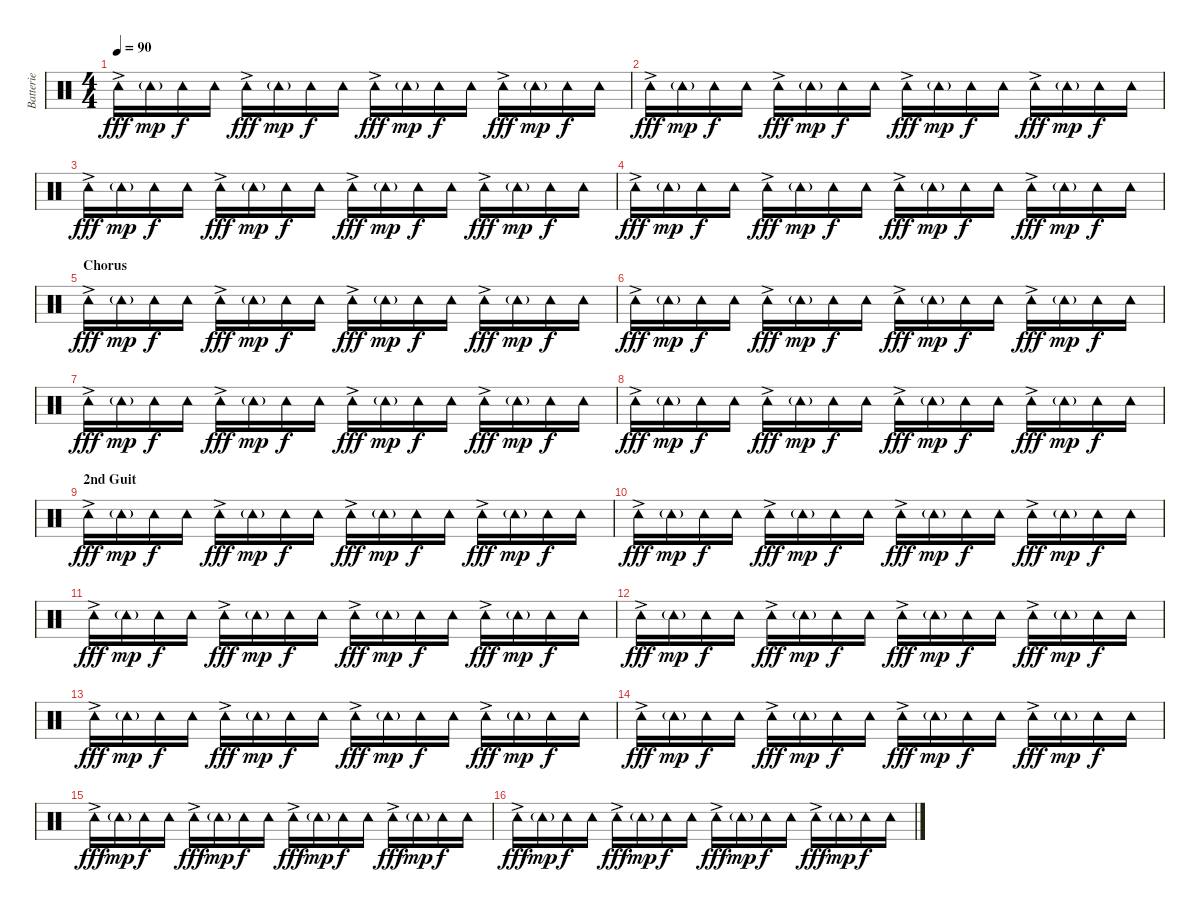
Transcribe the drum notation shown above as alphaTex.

\track ("Batterie" "Batterie") {instrument percussion}
\staff {score}
\articulation defaults
\ts (4 4)
\section ("" "")
\tempo 90
\clef neutral
\ks c "Tambourine (hit)"{ac}.16{dy fff} "Tambourine (hit)"{g}.16{dy mp} "Tambourine (hit)".16{dy f} "Tambourine (hit)".16 "Tambourine (hit)"{ac}.16{dy fff} "Tambourine (hit)"{g}.16{dy mp} "Tambourine (hit)".16{dy f} "Tambourine (hit)".16 "Tambourine (hit)"{ac}.16{dy fff} "Tambourine (hit)"{g}.16{dy mp} "Tambourine (hit)".16{dy f} "Tambourine (hit)".16 "Tambourine (hit)"{ac}.16{dy fff} "Tambourine (hit)"{g}.16{dy mp} "Tambourine (hit)".16{dy f} "Tambourine (hit)".16
|
"Tambourine (hit)"{ac}.16{dy fff} "Tambourine (hit)"{g}.16{dy mp} "Tambourine (hit)".16{dy f} "Tambourine (hit)".16 "Tambourine (hit)"{ac}.16{dy fff} "Tambourine (hit)"{g}.16{dy mp} "Tambourine (hit)".16{dy f} "Tambourine (hit)".16 "Tambourine (hit)"{ac}.16{dy fff} "Tambourine (hit)"{g}.16{dy mp} "Tambourine (hit)".16{dy f} "Tambourine (hit)".16 "Tambourine (hit)"{ac}.16{dy fff} "Tambourine (hit)"{g}.16{dy mp} "Tambourine (hit)".16{dy f} "Tambourine (hit)".16 |
"Tambourine (hit)"{ac}.16{dy fff} "Tambourine (hit)"{g}.16{dy mp} "Tambourine (hit)".16{dy f} "Tambourine (hit)".16 "Tambourine (hit)"{ac}.16{dy fff} "Tambourine (hit)"{g}.16{dy mp} "Tambourine (hit)".16{dy f} "Tambourine (hit)".16 "Tambourine (hit)"{ac}.16{dy fff} "Tambourine (hit)"{g}.16{dy mp} "Tambourine (hit)".16{dy f} "Tambourine (hit)".16 "Tambourine (hit)"{ac}.16{dy fff} "Tambourine (hit)"{g}.16{dy mp} "Tambourine (hit)".16{dy f} "Tambourine (hit)".16 |
"Tambourine (hit)"{ac}.16{dy fff} "Tambourine (hit)"{g}.16{dy mp} "Tambourine (hit)".16{dy f} "Tambourine (hit)".16 "Tambourine (hit)"{ac}.16{dy fff} "Tambourine (hit)"{g}.16{dy mp} "Tambourine (hit)".16{dy f} "Tambourine (hit)".16 "Tambourine (hit)"{ac}.16{dy fff} "Tambourine (hit)"{g}.16{dy mp} "Tambourine (hit)".16{dy f} "Tambourine (hit)".16 "Tambourine (hit)"{ac}.16{dy fff} "Tambourine (hit)"{g}.16{dy mp} "Tambourine (hit)".16{dy f} "Tambourine (hit)".16 |
\section ("" "Chorus")
"Tambourine (hit)"{ac}.16{dy fff} "Tambourine (hit)"{g}.16{dy mp} "Tambourine (hit)".16{dy f} "Tambourine (hit)".16 "Tambourine (hit)"{ac}.16{dy fff} "Tambourine (hit)"{g}.16{dy mp} "Tambourine (hit)".16{dy f} "Tambourine (hit)".16 "Tambourine (hit)"{ac}.16{dy fff} "Tambourine (hit)"{g}.16{dy mp} "Tambourine (hit)".16{dy f} "Tambourine (hit)".16 "Tambourine (hit)"{ac}.16{dy fff} "Tambourine (hit)"{g}.16{dy mp} "Tambourine (hit)".16{dy f} "Tambourine (hit)".16 |
"Tambourine (hit)"{ac}.16{dy fff} "Tambourine (hit)"{g}.16{dy mp} "Tambourine (hit)".16{dy f} "Tambourine (hit)".16 "Tambourine (hit)"{ac}.16{dy fff} "Tambourine (hit)"{g}.16{dy mp} "Tambourine (hit)".16{dy f} "Tambourine (hit)".16 "Tambourine (hit)"{ac}.16{dy fff} "Tambourine (hit)"{g}.16{dy mp} "Tambourine (hit)".16{dy f} "Tambourine (hit)".16 "Tambourine (hit)"{ac}.16{dy fff} "Tambourine (hit)"{g}.16{dy mp} "Tambourine (hit)".16{dy f} "Tambourine (hit)".16 |
"Tambourine (hit)"{ac}.16{dy fff} "Tambourine (hit)"{g}.16{dy mp} "Tambourine (hit)".16{dy f} "Tambourine (hit)".16 "Tambourine (hit)"{ac}.16{dy fff} "Tambourine (hit)"{g}.16{dy mp} "Tambourine (hit)".16{dy f} "Tambourine (hit)".16 "Tambourine (hit)"{ac}.16{dy fff} "Tambourine (hit)"{g}.16{dy mp} "Tambourine (hit)".16{dy f} "Tambourine (hit)".16 "Tambourine (hit)"{ac}.16{dy fff} "Tambourine (hit)"{g}.16{dy mp} "Tambourine (hit)".16{dy f} "Tambourine (hit)".16 |
"Tambourine (hit)"{ac}.16{dy fff} "Tambourine (hit)"{g}.16{dy mp} "Tambourine (hit)".16{dy f} "Tambourine (hit)".16 "Tambourine (hit)"{ac}.16{dy fff} "Tambourine (hit)"{g}.16{dy mp} "Tambourine (hit)".16{dy f} "Tambourine (hit)".16 "Tambourine (hit)"{ac}.16{dy fff} "Tambourine (hit)"{g}.16{dy mp} "Tambourine (hit)".16{dy f} "Tambourine (hit)".16 "Tambourine (hit)"{ac}.16{dy fff} "Tambourine (hit)"{g}.16{dy mp} "Tambourine (hit)".16{dy f} "Tambourine (hit)".16 |
\section ("" "2nd Guit")
"Tambourine (hit)"{ac}.16{dy fff} "Tambourine (hit)"{g}.16{dy mp} "Tambourine (hit)".16{dy f} "Tambourine (hit)".16 "Tambourine (hit)"{ac}.16{dy fff} "Tambourine (hit)"{g}.16{dy mp} "Tambourine (hit)".16{dy f} "Tambourine (hit)".16 "Tambourine (hit)"{ac}.16{dy fff} "Tambourine (hit)"{g}.16{dy mp} "Tambourine (hit)".16{dy f} "Tambourine (hit)".16 "Tambourine (hit)"{ac}.16{dy fff} "Tambourine (hit)"{g}.16{dy mp} "Tambourine (hit)".16{dy f} "Tambourine (hit)".16 |
"Tambourine (hit)"{ac}.16{dy fff} "Tambourine (hit)"{g}.16{dy mp} "Tambourine (hit)".16{dy f} "Tambourine (hit)".16 "Tambourine (hit)"{ac}.16{dy fff} "Tambourine (hit)"{g}.16{dy mp} "Tambourine (hit)".16{dy f} "Tambourine (hit)".16 "Tambourine (hit)"{ac}.16{dy fff} "Tambourine (hit)"{g}.16{dy mp} "Tambourine (hit)".16{dy f} "Tambourine (hit)".16 "Tambourine (hit)"{ac}.16{dy fff} "Tambourine (hit)"{g}.16{dy mp} "Tambourine (hit)".16{dy f} "Tambourine (hit)".16 |
"Tambourine (hit)"{ac}.16{dy fff} "Tambourine (hit)"{g}.16{dy mp} "Tambourine (hit)".16{dy f} "Tambourine (hit)".16 "Tambourine (hit)"{ac}.16{dy fff} "Tambourine (hit)"{g}.16{dy mp} "Tambourine (hit)".16{dy f} "Tambourine (hit)".16 "Tambourine (hit)"{ac}.16{dy fff} "Tambourine (hit)"{g}.16{dy mp} "Tambourine (hit)".16{dy f} "Tambourine (hit)".16 "Tambourine (hit)"{ac}.16{dy fff} "Tambourine (hit)"{g}.16{dy mp} "Tambourine (hit)".16{dy f} "Tambourine (hit)".16 |
"Tambourine (hit)"{ac}.16{dy fff} "Tambourine (hit)"{g}.16{dy mp} "Tambourine (hit)".16{dy f} "Tambourine (hit)".16 "Tambourine (hit)"{ac}.16{dy fff} "Tambourine (hit)"{g}.16{dy mp} "Tambourine (hit)".16{dy f} "Tambourine (hit)".16 "Tambourine (hit)"{ac}.16{dy fff} "Tambourine (hit)"{g}.16{dy mp} "Tambourine (hit)".16{dy f} "Tambourine (hit)".16 "Tambourine (hit)"{ac}.16{dy fff} "Tambourine (hit)"{g}.16{dy mp} "Tambourine (hit)".16{dy f} "Tambourine (hit)".16 |
"Tambourine (hit)"{ac}.16{dy fff} "Tambourine (hit)"{g}.16{dy mp} "Tambourine (hit)".16{dy f} "Tambourine (hit)".16 "Tambourine (hit)"{ac}.16{dy fff} "Tambourine (hit)"{g}.16{dy mp} "Tambourine (hit)".16{dy f} "Tambourine (hit)".16 "Tambourine (hit)"{ac}.16{dy fff} "Tambourine (hit)"{g}.16{dy mp} "Tambourine (hit)".16{dy f} "Tambourine (hit)".16 "Tambourine (hit)"{ac}.16{dy fff} "Tambourine (hit)"{g}.16{dy mp} "Tambourine (hit)".16{dy f} "Tambourine (hit)".16 |
"Tambourine (hit)"{ac}.16{dy fff} "Tambourine (hit)"{g}.16{dy mp} "Tambourine (hit)".16{dy f} "Tambourine (hit)".16 "Tambourine (hit)"{ac}.16{dy fff} "Tambourine (hit)"{g}.16{dy mp} "Tambourine (hit)".16{dy f} "Tambourine (hit)".16 "Tambourine (hit)"{ac}.16{dy fff} "Tambourine (hit)"{g}.16{dy mp} "Tambourine (hit)".16{dy f} "Tambourine (hit)".16 "Tambourine (hit)"{ac}.16{dy fff} "Tambourine (hit)"{g}.16{dy mp} "Tambourine (hit)".16{dy f} "Tambourine (hit)".16 |
"Tambourine (hit)"{ac}.16{dy fff} "Tambourine (hit)"{g}.16{dy mp} "Tambourine (hit)".16{dy f} "Tambourine (hit)".16 "Tambourine (hit)"{ac}.16{dy fff} "Tambourine (hit)"{g}.16{dy mp} "Tambourine (hit)".16{dy f} "Tambourine (hit)".16 "Tambourine (hit)"{ac}.16{dy fff} "Tambourine (hit)"{g}.16{dy mp} "Tambourine (hit)".16{dy f} "Tambourine (hit)".16 "Tambourine (hit)"{ac}.16{dy fff} "Tambourine (hit)"{g}.16{dy mp} "Tambourine (hit)".16{dy f} "Tambourine (hit)".16 |
"Tambourine (hit)"{ac}.16{dy fff} "Tambourine (hit)"{g}.16{dy mp} "Tambourine (hit)".16{dy f} "Tambourine (hit)".16 "Tambourine (hit)"{ac}.16{dy fff} "Tambourine (hit)"{g}.16{dy mp} "Tambourine (hit)".16{dy f} "Tambourine (hit)".16 "Tambourine (hit)"{ac}.16{dy fff} "Tambourine (hit)"{g}.16{dy mp} "Tambourine (hit)".16{dy f} "Tambourine (hit)".16 "Tambourine (hit)"{ac}.16{dy fff} "Tambourine (hit)"{g}.16{dy mp} "Tambourine (hit)".16{dy f} "Tambourine (hit)".16
